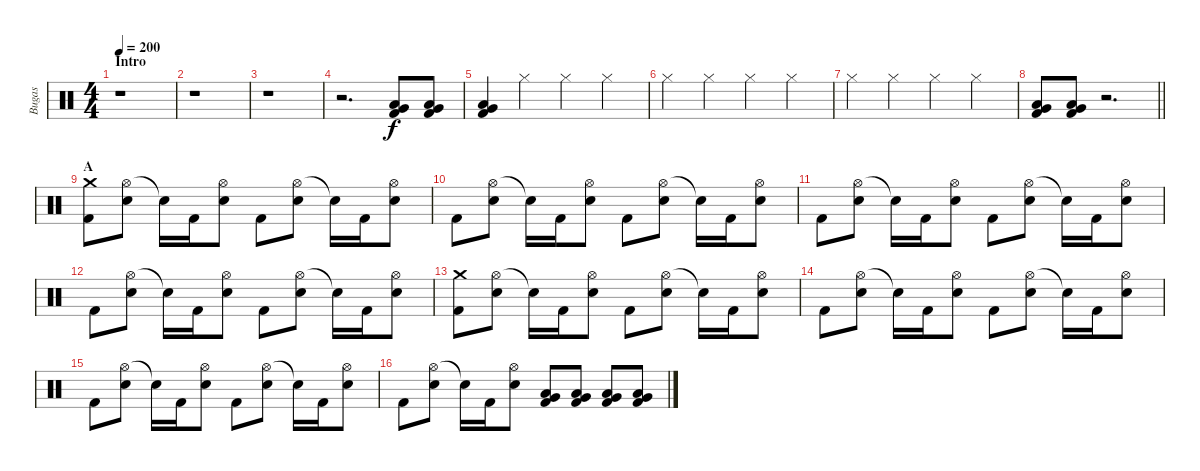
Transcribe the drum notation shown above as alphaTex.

\track ("Bugas" "Bugas") {instrument percussion}
\staff {score}
\articulation defaults
\ts (4 4)
\section ("" "Intro")
\tempo 200
\clef neutral
\ks c
r.1{dy f} |
r.1 |
r.1 |
r.2{d} ("Very Low Tom (hit)" "Low Tom (hit)" "Kick (hit) 2").8 ("Very Low Tom (hit)" "Low Tom (hit)" "Kick (hit) 2").8 |
("Very Low Tom (hit)" "Low Tom (hit)" "Kick (hit) 2").4 "Hi-Hat (closed)".4 "Hi-Hat (closed)".4 "Hi-Hat (closed)".4 |
"Hi-Hat (closed)".4 "Hi-Hat (closed)".4 "Hi-Hat (closed)".4 "Hi-Hat (closed)".4 |
"Hi-Hat (closed)".4 "Hi-Hat (closed)".4 "Hi-Hat (closed)".4 "Hi-Hat (closed)".4 |
\barLineRight lightlight
("Very Low Tom (hit)" "Low Tom (hit)" "Kick (hit) 2").8 ("Very Low Tom (hit)" "Low Tom (hit)" "Kick (hit) 2").8 r.2{d} |
\section ("" "A")
("Crash medium (hit)" "Kick (hit) 2").8 ("Hi-Hat (open)" "Electric Snare (hit)").8 "Snare (hit)"{t}.16 "Kick (hit) 2".16 ("Hi-Hat (open)" "Electric Snare (hit)").8 "Kick (hit) 2".8 ("Hi-Hat (open)" "Electric Snare (hit)").8 "Snare (hit)"{t}.16 "Kick (hit) 2".16 ("Hi-Hat (open)" "Electric Snare (hit)").8 |
"Kick (hit) 2".8 ("Hi-Hat (open)" "Electric Snare (hit)").8 "Snare (hit)"{t}.16 "Kick (hit) 2".16 ("Hi-Hat (open)" "Electric Snare (hit)").8 "Kick (hit) 2".8 ("Hi-Hat (open)" "Electric Snare (hit)").8 "Snare (hit)"{t}.16 "Kick (hit) 2".16 ("Hi-Hat (open)" "Electric Snare (hit)").8 |
"Kick (hit) 2".8 ("Hi-Hat (open)" "Electric Snare (hit)").8 "Snare (hit)"{t}.16 "Kick (hit) 2".16 ("Hi-Hat (open)" "Electric Snare (hit)").8 "Kick (hit) 2".8 ("Hi-Hat (open)" "Electric Snare (hit)").8 "Snare (hit)"{t}.16 "Kick (hit) 2".16 ("Hi-Hat (open)" "Electric Snare (hit)").8 |
"Kick (hit) 2".8 ("Hi-Hat (open)" "Electric Snare (hit)").8 "Snare (hit)"{t}.16 "Kick (hit) 2".16 ("Hi-Hat (open)" "Electric Snare (hit)").8 "Kick (hit) 2".8 ("Hi-Hat (open)" "Electric Snare (hit)").8 "Snare (hit)"{t}.16 "Kick (hit) 2".16 ("Hi-Hat (open)" "Electric Snare (hit)").8 |
("Crash medium (hit)" "Kick (hit) 2").8 ("Hi-Hat (open)" "Electric Snare (hit)").8 "Snare (hit)"{t}.16 "Kick (hit) 2".16 ("Hi-Hat (open)" "Electric Snare (hit)").8 "Kick (hit) 2".8 ("Hi-Hat (open)" "Electric Snare (hit)").8 "Snare (hit)"{t}.16 "Kick (hit) 2".16 ("Hi-Hat (open)" "Electric Snare (hit)").8 |
"Kick (hit) 2".8 ("Hi-Hat (open)" "Electric Snare (hit)").8 "Snare (hit)"{t}.16 "Kick (hit) 2".16 ("Hi-Hat (open)" "Electric Snare (hit)").8 "Kick (hit) 2".8 ("Hi-Hat (open)" "Electric Snare (hit)").8 "Snare (hit)"{t}.16 "Kick (hit) 2".16 ("Hi-Hat (open)" "Electric Snare (hit)").8 |
"Kick (hit) 2".8 ("Hi-Hat (open)" "Electric Snare (hit)").8 "Snare (hit)"{t}.16 "Kick (hit) 2".16 ("Hi-Hat (open)" "Electric Snare (hit)").8 "Kick (hit) 2".8 ("Hi-Hat (open)" "Electric Snare (hit)").8 "Snare (hit)"{t}.16 "Kick (hit) 2".16 ("Hi-Hat (open)" "Electric Snare (hit)").8 |
"Kick (hit) 2".8 ("Hi-Hat (open)" "Electric Snare (hit)").8 "Snare (hit)"{t}.16 "Kick (hit) 2".16 ("Hi-Hat (open)" "Electric Snare (hit)").8 ("Very Low Tom (hit)" "Low Tom (hit)" "Kick (hit) 2").8 ("Very Low Tom (hit)" "Low Tom (hit)" "Kick (hit) 2").8 ("Very Low Tom (hit)" "Low Tom (hit)" "Kick (hit) 2").8 ("Very Low Tom (hit)" "Low Tom (hit)" "Kick (hit) 2").8
